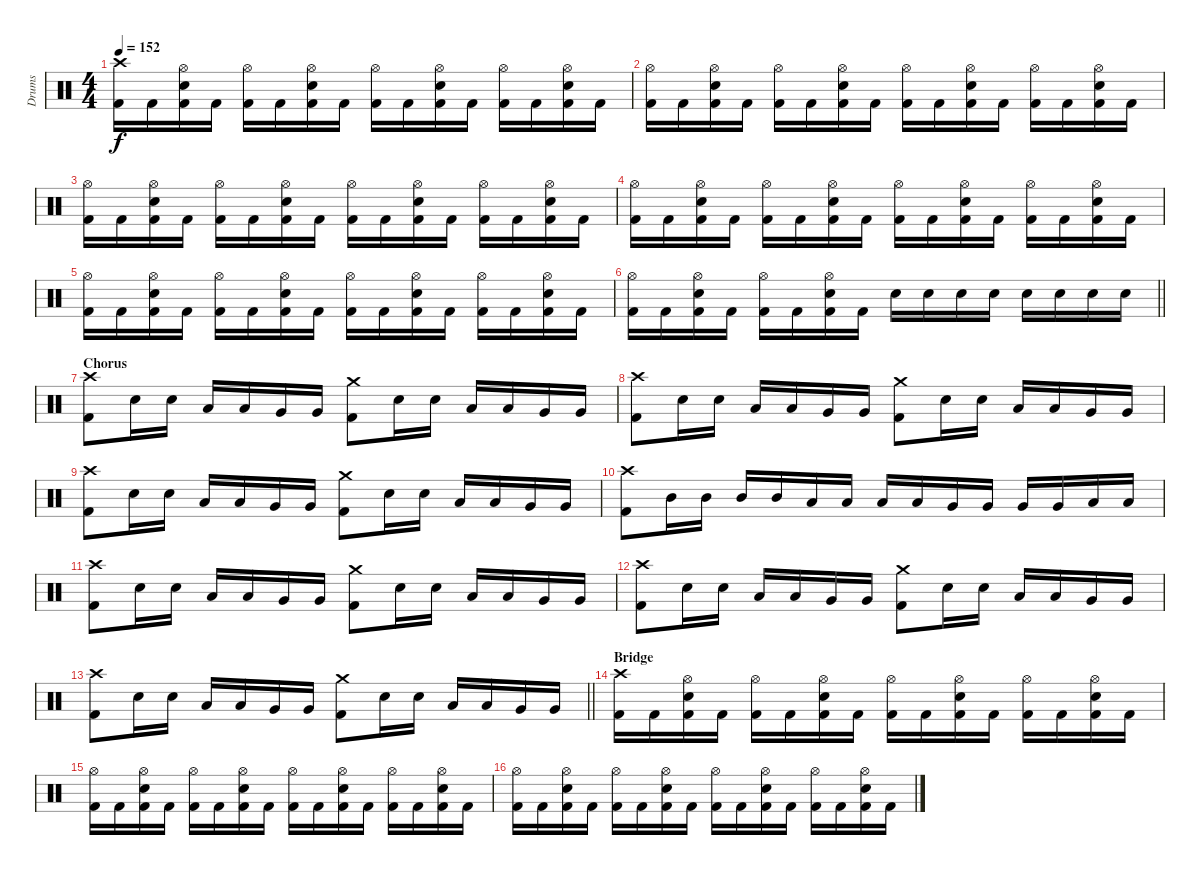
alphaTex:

\track ("Drums" "Drums") {instrument percussion}
\staff {score}
\articulation defaults
\ts (4 4)
\tempo 152
\clef neutral
\ks c
("Crash high (hit)" "Kick (hit) 2").16{dy f} "Kick (hit) 2".16 ("Hi-Hat (open)" "Snare (hit) 2" "Kick (hit) 2").16 "Kick (hit) 2".16 ("Hi-Hat (open)" "Kick (hit) 2").16 "Kick (hit) 2".16 ("Hi-Hat (open)" "Snare (hit) 2" "Kick (hit) 2").16 "Kick (hit) 2".16 ("Hi-Hat (open)" "Kick (hit) 2").16 "Kick (hit) 2".16 ("Hi-Hat (open)" "Snare (hit) 2" "Kick (hit) 2").16 "Kick (hit) 2".16 ("Hi-Hat (open)" "Kick (hit) 2").16 "Kick (hit) 2".16 ("Hi-Hat (open)" "Snare (hit) 2" "Kick (hit) 2").16 "Kick (hit) 2".16 |
("Hi-Hat (open)" "Kick (hit) 2").16 "Kick (hit) 2".16 ("Hi-Hat (open)" "Snare (hit) 2" "Kick (hit) 2").16 "Kick (hit) 2".16 ("Hi-Hat (open)" "Kick (hit) 2").16 "Kick (hit) 2".16 ("Hi-Hat (open)" "Snare (hit) 2" "Kick (hit) 2").16 "Kick (hit) 2".16 ("Hi-Hat (open)" "Kick (hit) 2").16 "Kick (hit) 2".16 ("Hi-Hat (open)" "Snare (hit) 2" "Kick (hit) 2").16 "Kick (hit) 2".16 ("Hi-Hat (open)" "Kick (hit) 2").16 "Kick (hit) 2".16 ("Hi-Hat (open)" "Snare (hit) 2" "Kick (hit) 2").16 "Kick (hit) 2".16 |
("Hi-Hat (open)" "Kick (hit) 2").16 "Kick (hit) 2".16 ("Hi-Hat (open)" "Snare (hit) 2" "Kick (hit) 2").16 "Kick (hit) 2".16 ("Hi-Hat (open)" "Kick (hit) 2").16 "Kick (hit) 2".16 ("Hi-Hat (open)" "Snare (hit) 2" "Kick (hit) 2").16 "Kick (hit) 2".16 ("Hi-Hat (open)" "Kick (hit) 2").16 "Kick (hit) 2".16 ("Hi-Hat (open)" "Snare (hit) 2" "Kick (hit) 2").16 "Kick (hit) 2".16 ("Hi-Hat (open)" "Kick (hit) 2").16 "Kick (hit) 2".16 ("Hi-Hat (open)" "Snare (hit) 2" "Kick (hit) 2").16 "Kick (hit) 2".16 |
("Hi-Hat (open)" "Kick (hit) 2").16 "Kick (hit) 2".16 ("Hi-Hat (open)" "Snare (hit) 2" "Kick (hit) 2").16 "Kick (hit) 2".16 ("Hi-Hat (open)" "Kick (hit) 2").16 "Kick (hit) 2".16 ("Hi-Hat (open)" "Snare (hit) 2" "Kick (hit) 2").16 "Kick (hit) 2".16 ("Hi-Hat (open)" "Kick (hit) 2").16 "Kick (hit) 2".16 ("Hi-Hat (open)" "Snare (hit) 2" "Kick (hit) 2").16 "Kick (hit) 2".16 ("Hi-Hat (open)" "Kick (hit) 2").16 "Kick (hit) 2".16 ("Hi-Hat (open)" "Snare (hit) 2" "Kick (hit) 2").16 "Kick (hit) 2".16 |
("Hi-Hat (open)" "Kick (hit) 2").16 "Kick (hit) 2".16 ("Hi-Hat (open)" "Snare (hit) 2" "Kick (hit) 2").16 "Kick (hit) 2".16 ("Hi-Hat (open)" "Kick (hit) 2").16 "Kick (hit) 2".16 ("Hi-Hat (open)" "Snare (hit) 2" "Kick (hit) 2").16 "Kick (hit) 2".16 ("Hi-Hat (open)" "Kick (hit) 2").16 "Kick (hit) 2".16 ("Hi-Hat (open)" "Snare (hit) 2" "Kick (hit) 2").16 "Kick (hit) 2".16 ("Hi-Hat (open)" "Kick (hit) 2").16 "Kick (hit) 2".16 ("Hi-Hat (open)" "Snare (hit) 2" "Kick (hit) 2").16 "Kick (hit) 2".16 |
\barLineRight lightlight
("Hi-Hat (open)" "Kick (hit) 2").16 "Kick (hit) 2".16 ("Hi-Hat (open)" "Snare (hit) 2" "Kick (hit) 2").16 "Kick (hit) 2".16 ("Hi-Hat (open)" "Kick (hit) 2").16 "Kick (hit) 2".16 ("Hi-Hat (open)" "Snare (hit) 2" "Kick (hit) 2").16 "Kick (hit) 2".16 "Snare (hit) 2".16 "Snare (hit) 2".16 "Snare (hit) 2".16 "Snare (hit) 2".16 "Snare (hit) 2".16 "Snare (hit) 2".16 "Snare (hit) 2".16 "Snare (hit) 2".16 |
\section ("" "Chorus")
("Crash high (hit)" "Kick (hit) 2").8 "Snare (hit) 2".16 "Snare (hit) 2".16 "Low Tom (hit)".16 "Low Tom (hit)".16 "Very Low Tom (hit)".16 "Very Low Tom (hit)".16 ("Crash medium (hit)" "Kick (hit) 2").8 "Snare (hit) 2".16 "Snare (hit) 2".16 "Low Tom (hit)".16 "Low Tom (hit)".16 "Very Low Tom (hit)".16 "Very Low Tom (hit)".16 |
("Crash high (hit)" "Kick (hit) 2").8 "Snare (hit) 2".16 "Snare (hit) 2".16 "Low Tom (hit)".16 "Low Tom (hit)".16 "Very Low Tom (hit)".16 "Very Low Tom (hit)".16 ("Crash medium (hit)" "Kick (hit) 2").8 "Snare (hit) 2".16 "Snare (hit) 2".16 "Low Tom (hit)".16 "Low Tom (hit)".16 "Very Low Tom (hit)".16 "Very Low Tom (hit)".16 |
("Crash high (hit)" "Kick (hit) 2").8 "Snare (hit) 2".16 "Snare (hit) 2".16 "Low Tom (hit)".16 "Low Tom (hit)".16 "Very Low Tom (hit)".16 "Very Low Tom (hit)".16 ("Crash medium (hit)" "Kick (hit) 2").8 "Snare (hit) 2".16 "Snare (hit) 2".16 "Low Tom (hit)".16 "Low Tom (hit)".16 "Very Low Tom (hit)".16 "Very Low Tom (hit)".16 |
("Crash high (hit)" "Kick (hit) 2").8 "Mid Tom (hit)".16 "Mid Tom (hit)".16 "Mid Tom (hit)".16 "Mid Tom (hit)".16 "Low Tom (hit)".16 "Low Tom (hit)".16 "Low Tom (hit)".16 "Low Tom (hit)".16 "Very Low Tom (hit)".16 "Very Low Tom (hit)".16 "Very Low Tom (hit)".16 "Very Low Tom (hit)".16 "Low Floor Tom (hit)".16 "Low Floor Tom (hit)".16 |
("Crash high (hit)" "Kick (hit) 2").8 "Snare (hit) 2".16 "Snare (hit) 2".16 "Low Tom (hit)".16 "Low Tom (hit)".16 "Very Low Tom (hit)".16 "Very Low Tom (hit)".16 ("Crash medium (hit)" "Kick (hit) 2").8 "Snare (hit) 2".16 "Snare (hit) 2".16 "Low Tom (hit)".16 "Low Tom (hit)".16 "Very Low Tom (hit)".16 "Very Low Tom (hit)".16 |
("Crash high (hit)" "Kick (hit) 2").8 "Snare (hit) 2".16 "Snare (hit) 2".16 "Low Tom (hit)".16 "Low Tom (hit)".16 "Very Low Tom (hit)".16 "Very Low Tom (hit)".16 ("Crash medium (hit)" "Kick (hit) 2").8 "Snare (hit) 2".16 "Snare (hit) 2".16 "Low Tom (hit)".16 "Low Tom (hit)".16 "Very Low Tom (hit)".16 "Very Low Tom (hit)".16 |
\barLineRight lightlight
("Crash high (hit)" "Kick (hit) 2").8 "Snare (hit) 2".16 "Snare (hit) 2".16 "Low Tom (hit)".16 "Low Tom (hit)".16 "Very Low Tom (hit)".16 "Very Low Tom (hit)".16 ("Crash medium (hit)" "Kick (hit) 2").8 "Snare (hit) 2".16 "Snare (hit) 2".16 "Low Tom (hit)".16 "Low Tom (hit)".16 "Very Low Tom (hit)".16 "Very Low Tom (hit)".16 |
\section ("" "Bridge")
("Crash high (hit)" "Kick (hit) 2").16 "Kick (hit) 2".16 ("Hi-Hat (open)" "Snare (hit) 2" "Kick (hit) 2").16 "Kick (hit) 2".16 ("Hi-Hat (open)" "Kick (hit) 2").16 "Kick (hit) 2".16 ("Hi-Hat (open)" "Snare (hit) 2" "Kick (hit) 2").16 "Kick (hit) 2".16 ("Hi-Hat (open)" "Kick (hit) 2").16 "Kick (hit) 2".16 ("Hi-Hat (open)" "Snare (hit) 2" "Kick (hit) 2").16 "Kick (hit) 2".16 ("Hi-Hat (open)" "Kick (hit) 2").16 "Kick (hit) 2".16 ("Hi-Hat (open)" "Snare (hit) 2" "Kick (hit) 2").16 "Kick (hit) 2".16 |
("Hi-Hat (open)" "Kick (hit) 2").16 "Kick (hit) 2".16 ("Hi-Hat (open)" "Snare (hit) 2" "Kick (hit) 2").16 "Kick (hit) 2".16 ("Hi-Hat (open)" "Kick (hit) 2").16 "Kick (hit) 2".16 ("Hi-Hat (open)" "Snare (hit) 2" "Kick (hit) 2").16 "Kick (hit) 2".16 ("Hi-Hat (open)" "Kick (hit) 2").16 "Kick (hit) 2".16 ("Hi-Hat (open)" "Snare (hit) 2" "Kick (hit) 2").16 "Kick (hit) 2".16 ("Hi-Hat (open)" "Kick (hit) 2").16 "Kick (hit) 2".16 ("Hi-Hat (open)" "Snare (hit) 2" "Kick (hit) 2").16 "Kick (hit) 2".16 |
("Hi-Hat (open)" "Kick (hit) 2").16 "Kick (hit) 2".16 ("Hi-Hat (open)" "Snare (hit) 2" "Kick (hit) 2").16 "Kick (hit) 2".16 ("Hi-Hat (open)" "Kick (hit) 2").16 "Kick (hit) 2".16 ("Hi-Hat (open)" "Snare (hit) 2" "Kick (hit) 2").16 "Kick (hit) 2".16 ("Hi-Hat (open)" "Kick (hit) 2").16 "Kick (hit) 2".16 ("Hi-Hat (open)" "Snare (hit) 2" "Kick (hit) 2").16 "Kick (hit) 2".16 ("Hi-Hat (open)" "Kick (hit) 2").16 "Kick (hit) 2".16 ("Hi-Hat (open)" "Snare (hit) 2" "Kick (hit) 2").16 "Kick (hit) 2".16
